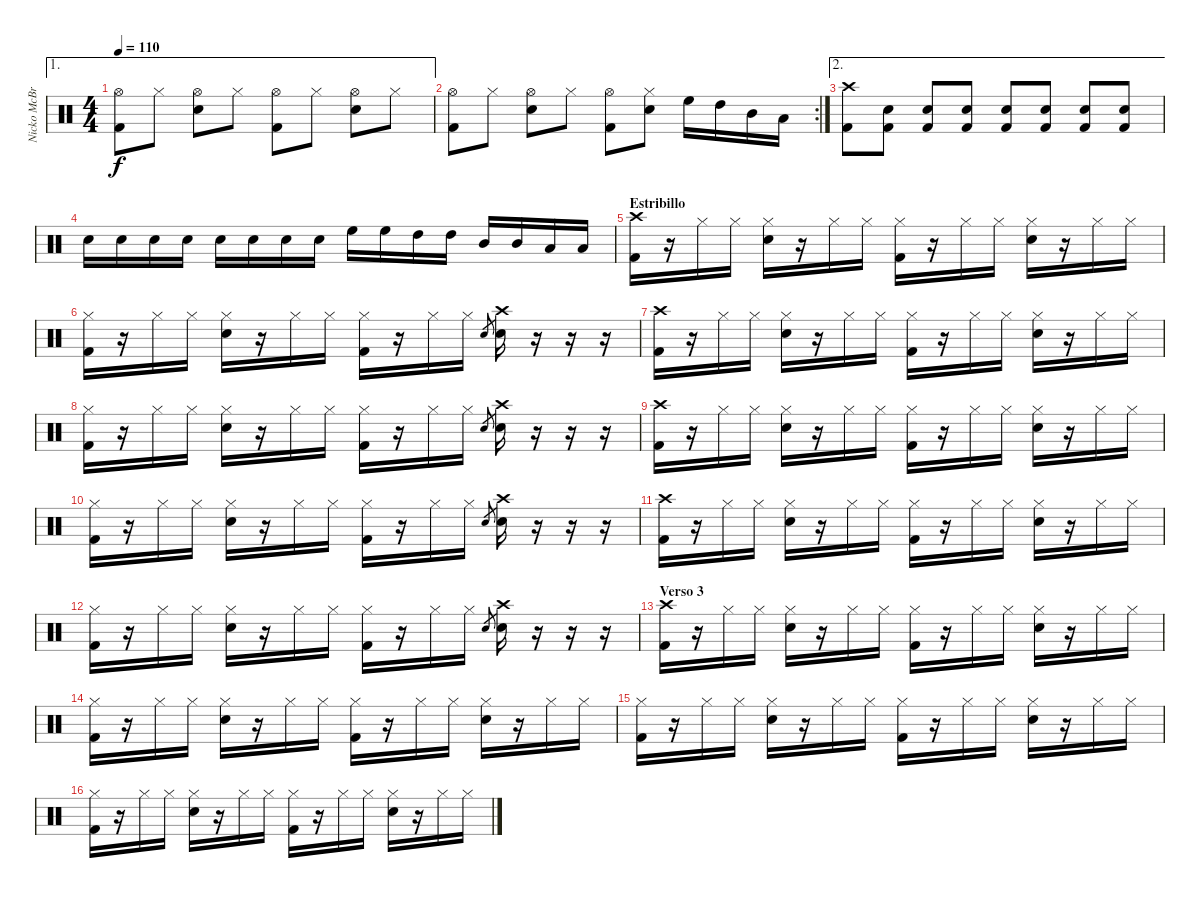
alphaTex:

\track ("Nicko McBrain" "Nicko McBr") {instrument percussion}
\staff {score}
\articulation defaults
\ae 1
\ts (4 4)
\tempo 110
\clef neutral
\ks c
("Hi-Hat (open)" "Kick (hit) 2").8{dy f} "Hi-Hat (closed)".8 ("Hi-Hat (open)" "Snare (hit) 2").8 "Hi-Hat (closed)".8 ("Hi-Hat (open)" "Kick (hit) 2").8 "Hi-Hat (closed)".8 ("Hi-Hat (open)" "Snare (hit) 2").8 "Hi-Hat (closed)".8 |
\rc 2
("Hi-Hat (open)" "Kick (hit) 2").8 "Hi-Hat (closed)".8 ("Hi-Hat (open)" "Snare (hit) 2").8 "Hi-Hat (closed)".8 ("Hi-Hat (open)" "Kick (hit) 2").8 ("Hi-Hat (closed)" "Snare (hit) 2").8 "High Floor Tom (hit)".16 "High Tom (hit)".16 "Mid Tom (hit)".16 "Low Tom (hit)".16 |
\ae 2
("Crash high (hit)" "Kick (hit) 2").8 ("Kick (hit) 2" "Snare (hit) 2").8 ("Kick (hit) 2" "Snare (hit) 2").8 ("Kick (hit) 2" "Snare (hit) 2").8 ("Kick (hit) 2" "Snare (hit) 2").8 ("Kick (hit) 2" "Snare (hit) 2").8 ("Kick (hit) 2" "Snare (hit) 2").8 ("Kick (hit) 2" "Snare (hit) 2").8 |
"Snare (hit) 2".16 "Snare (hit) 2".16 "Snare (hit) 2".16 "Snare (hit) 2".16 "Snare (hit) 2".16 "Snare (hit) 2".16 "Snare (hit) 2".16 "Snare (hit) 2".16 "High Floor Tom (hit)".16 "High Floor Tom (hit)".16 "High Tom (hit)".16 "High Tom (hit)".16 "Mid Tom (hit)".16 "Mid Tom (hit)".16 "Low Tom (hit)".16 "Low Tom (hit)".16 |
\section ("" "Estribillo")
("Crash high (hit)" "Kick (hit) 2").16 r.16 "Hi-Hat (closed)".16 "Hi-Hat (closed)".16 ("Hi-Hat (closed)" "Snare (hit) 2").16 r.16 "Hi-Hat (closed)".16 "Hi-Hat (closed)".16 ("Hi-Hat (closed)" "Kick (hit) 2").16 r.16 "Hi-Hat (closed)".16 "Hi-Hat (closed)".16 ("Hi-Hat (closed)" "Snare (hit) 2").16 r.16 "Hi-Hat (closed)".16 "Hi-Hat (closed)".16 |
("Hi-Hat (closed)" "Kick (hit) 2").16 r.16 "Hi-Hat (closed)".16 "Hi-Hat (closed)".16 ("Hi-Hat (closed)" "Snare (hit) 2").16 r.16 "Hi-Hat (closed)".16 "Hi-Hat (closed)".16 ("Hi-Hat (closed)" "Kick (hit) 2").16 r.16 "Hi-Hat (closed)".16 "Hi-Hat (closed)".16 "Snare (hit) 2".8{gr} ("Crash high (hit)" "Snare (hit) 2").16 r.16 r.16 r.16 |
("Crash high (hit)" "Kick (hit) 2").16 r.16 "Hi-Hat (closed)".16 "Hi-Hat (closed)".16 ("Hi-Hat (closed)" "Snare (hit) 2").16 r.16 "Hi-Hat (closed)".16 "Hi-Hat (closed)".16 ("Hi-Hat (closed)" "Kick (hit) 2").16 r.16 "Hi-Hat (closed)".16 "Hi-Hat (closed)".16 ("Hi-Hat (closed)" "Snare (hit) 2").16 r.16 "Hi-Hat (closed)".16 "Hi-Hat (closed)".16 |
("Hi-Hat (closed)" "Kick (hit) 2").16 r.16 "Hi-Hat (closed)".16 "Hi-Hat (closed)".16 ("Hi-Hat (closed)" "Snare (hit) 2").16 r.16 "Hi-Hat (closed)".16 "Hi-Hat (closed)".16 ("Hi-Hat (closed)" "Kick (hit) 2").16 r.16 "Hi-Hat (closed)".16 "Hi-Hat (closed)".16 "Snare (hit) 2".8{gr} ("Crash high (hit)" "Snare (hit) 2").16 r.16 r.16 r.16 |
("Crash high (hit)" "Kick (hit) 2").16 r.16 "Hi-Hat (closed)".16 "Hi-Hat (closed)".16 ("Hi-Hat (closed)" "Snare (hit) 2").16 r.16 "Hi-Hat (closed)".16 "Hi-Hat (closed)".16 ("Hi-Hat (closed)" "Kick (hit) 2").16 r.16 "Hi-Hat (closed)".16 "Hi-Hat (closed)".16 ("Hi-Hat (closed)" "Snare (hit) 2").16 r.16 "Hi-Hat (closed)".16 "Hi-Hat (closed)".16 |
("Hi-Hat (closed)" "Kick (hit) 2").16 r.16 "Hi-Hat (closed)".16 "Hi-Hat (closed)".16 ("Hi-Hat (closed)" "Snare (hit) 2").16 r.16 "Hi-Hat (closed)".16 "Hi-Hat (closed)".16 ("Hi-Hat (closed)" "Kick (hit) 2").16 r.16 "Hi-Hat (closed)".16 "Hi-Hat (closed)".16 "Snare (hit) 2".8{gr} ("Crash high (hit)" "Snare (hit) 2").16 r.16 r.16 r.16 |
("Crash high (hit)" "Kick (hit) 2").16 r.16 "Hi-Hat (closed)".16 "Hi-Hat (closed)".16 ("Hi-Hat (closed)" "Snare (hit) 2").16 r.16 "Hi-Hat (closed)".16 "Hi-Hat (closed)".16 ("Hi-Hat (closed)" "Kick (hit) 2").16 r.16 "Hi-Hat (closed)".16 "Hi-Hat (closed)".16 ("Hi-Hat (closed)" "Snare (hit) 2").16 r.16 "Hi-Hat (closed)".16 "Hi-Hat (closed)".16 |
("Hi-Hat (closed)" "Kick (hit) 2").16 r.16 "Hi-Hat (closed)".16 "Hi-Hat (closed)".16 ("Hi-Hat (closed)" "Snare (hit) 2").16 r.16 "Hi-Hat (closed)".16 "Hi-Hat (closed)".16 ("Hi-Hat (closed)" "Kick (hit) 2").16 r.16 "Hi-Hat (closed)".16 "Hi-Hat (closed)".16 "Snare (hit) 2".8{gr} ("Crash high (hit)" "Snare (hit) 2").16 r.16 r.16 r.16 |
\section ("" "Verso 3")
("Crash high (hit)" "Kick (hit) 2").16 r.16 "Hi-Hat (closed)".16 "Hi-Hat (closed)".16 ("Hi-Hat (closed)" "Snare (hit) 2").16 r.16 "Hi-Hat (closed)".16 "Hi-Hat (closed)".16 ("Hi-Hat (closed)" "Kick (hit) 2").16 r.16 "Hi-Hat (closed)".16 "Hi-Hat (closed)".16 ("Hi-Hat (closed)" "Snare (hit) 2").16 r.16 "Hi-Hat (closed)".16 "Hi-Hat (closed)".16 |
("Hi-Hat (closed)" "Kick (hit) 2").16 r.16 "Hi-Hat (closed)".16 "Hi-Hat (closed)".16 ("Hi-Hat (closed)" "Snare (hit) 2").16 r.16 "Hi-Hat (closed)".16 "Hi-Hat (closed)".16 ("Hi-Hat (closed)" "Kick (hit) 2").16 r.16 "Hi-Hat (closed)".16 "Hi-Hat (closed)".16 ("Hi-Hat (closed)" "Snare (hit) 2").16 r.16 "Hi-Hat (closed)".16 "Hi-Hat (closed)".16 |
("Hi-Hat (closed)" "Kick (hit) 2").16 r.16 "Hi-Hat (closed)".16 "Hi-Hat (closed)".16 ("Hi-Hat (closed)" "Snare (hit) 2").16 r.16 "Hi-Hat (closed)".16 "Hi-Hat (closed)".16 ("Hi-Hat (closed)" "Kick (hit) 2").16 r.16 "Hi-Hat (closed)".16 "Hi-Hat (closed)".16 ("Hi-Hat (closed)" "Snare (hit) 2").16 r.16 "Hi-Hat (closed)".16 "Hi-Hat (closed)".16 |
("Hi-Hat (closed)" "Kick (hit) 2").16 r.16 "Hi-Hat (closed)".16 "Hi-Hat (closed)".16 ("Hi-Hat (closed)" "Snare (hit) 2").16 r.16 "Hi-Hat (closed)".16 "Hi-Hat (closed)".16 ("Hi-Hat (closed)" "Kick (hit) 2").16 r.16 "Hi-Hat (closed)".16 "Hi-Hat (closed)".16 ("Hi-Hat (closed)" "Snare (hit) 2").16 r.16 "Hi-Hat (closed)".16 "Hi-Hat (closed)".16
